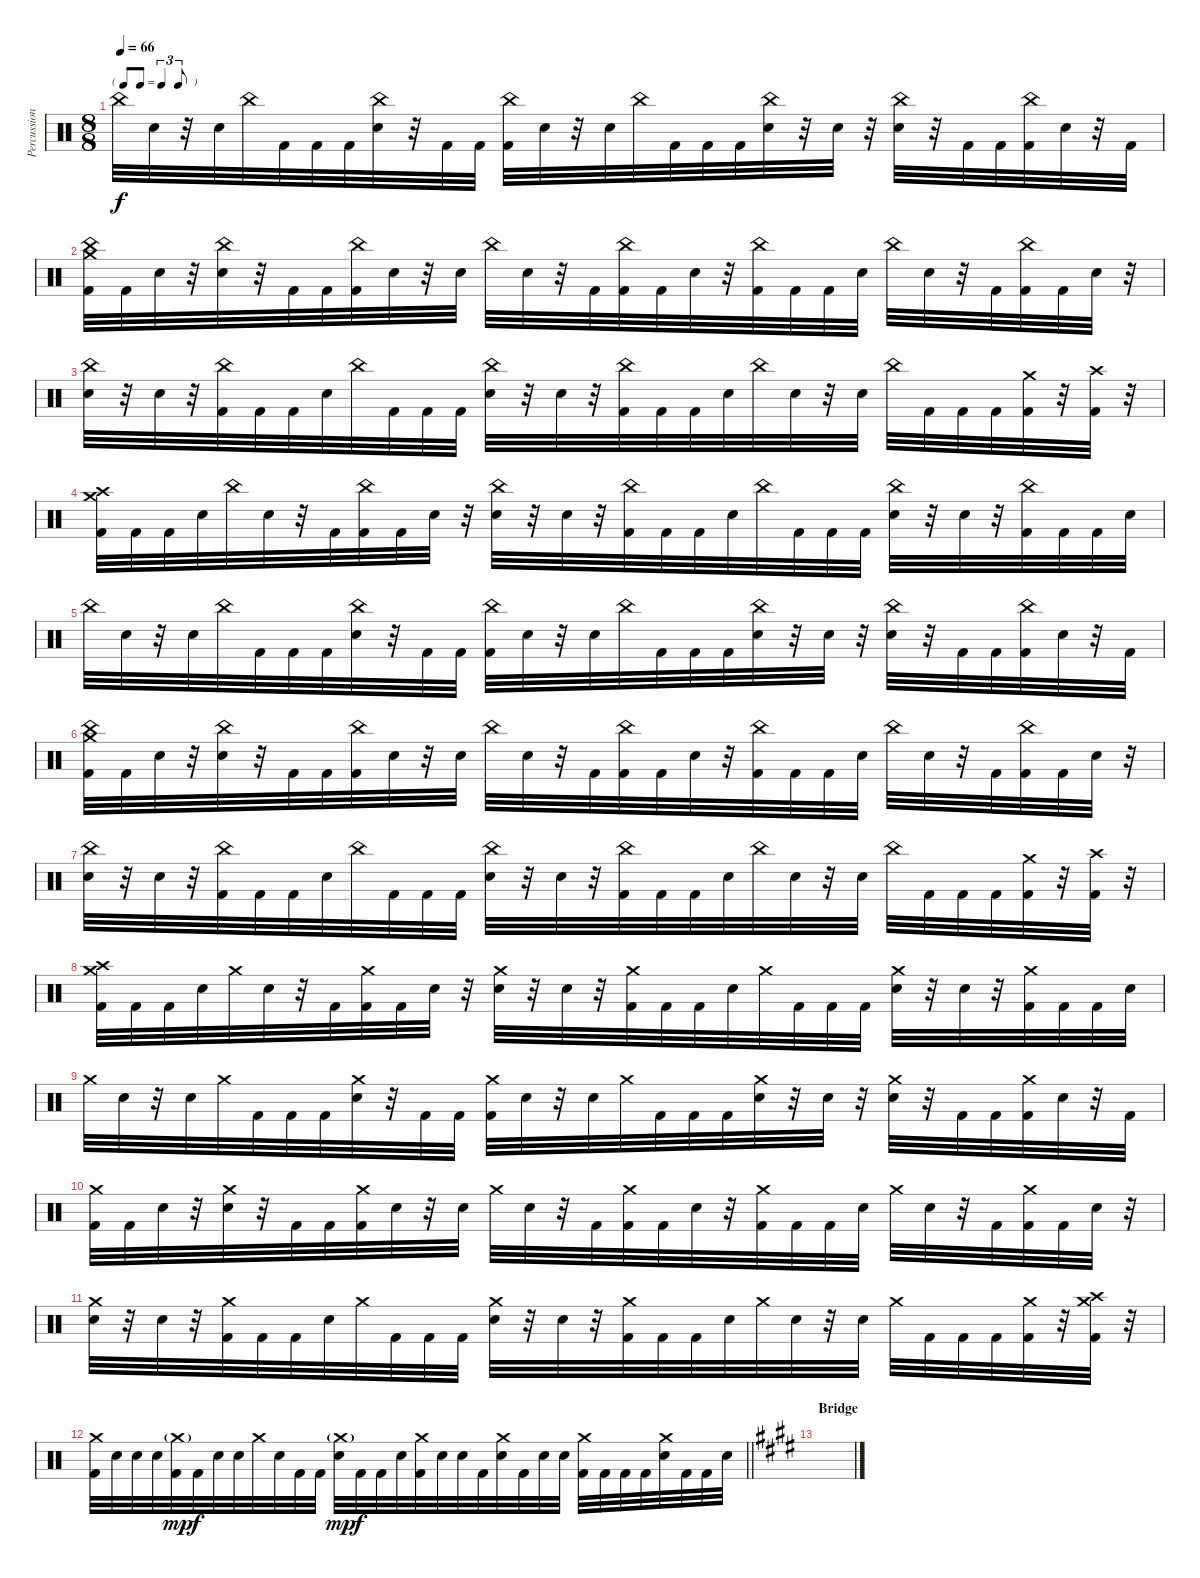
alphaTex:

\track ("Percussion" "Percussion") {instrument percussion}
\staff {score}
\articulation defaults
\ts (8 8)
\tf triplet8th
\tempo 66
\clef neutral
\ks aminor "China (hit)".32{dy f} "Electric Snare (hit)".32
r.32 "Electric Snare (hit)".32 "China (hit)".32 "Kick (hit) 2".32 "Kick (hit) 2".32 "Kick (hit) 2".32 ("China (hit)" "Electric Snare (hit)").32 r.32 "Kick (hit) 2".32 "Kick (hit) 2".32 ("China (hit)" "Kick (hit) 2").32 "Electric Snare (hit)".32 r.32 "Electric Snare (hit)".32 "China (hit)".32 "Kick (hit) 2".32 "Kick (hit) 2".32 "Kick (hit) 2".32 ("China (hit)" "Electric Snare (hit)").32 r.32 "Electric Snare (hit)".32 r.32 ("China (hit)" "Electric Snare (hit)").32 r.32 "Kick (hit) 2".32 "Kick (hit) 2".32 ("China (hit)" "Kick (hit) 2").32 "Electric Snare (hit)".32 r.32 "Kick (hit) 2".32 |
("China (hit)" "Crash medium (hit)" "Kick (hit) 2").32 "Kick (hit) 2".32 "Electric Snare (hit)".32 r.32 ("China (hit)" "Electric Snare (hit)").32 r.32 "Kick (hit) 2".32 "Kick (hit) 2".32 ("China (hit)" "Kick (hit) 2").32 "Electric Snare (hit)".32 r.32 "Electric Snare (hit)".32 "China (hit)".32 "Electric Snare (hit)".32 r.32 "Kick (hit) 2".32 ("China (hit)" "Kick (hit) 2").32 "Kick (hit) 2".32 "Electric Snare (hit)".32 r.32 ("China (hit)" "Kick (hit) 2").32 "Kick (hit) 2".32 "Kick (hit) 2".32 "Electric Snare (hit)".32 "China (hit)".32 "Electric Snare (hit)".32 r.32 "Kick (hit) 2".32 ("China (hit)" "Kick (hit) 2").32 "Kick (hit) 2".32 "Electric Snare (hit)".32 r.32 |
("China (hit)" "Electric Snare (hit)").32 r.32 "Electric Snare (hit)".32 r.32 ("China (hit)" "Kick (hit) 2").32 "Kick (hit) 2".32 "Kick (hit) 2".32 "Electric Snare (hit)".32 "China (hit)".32 "Kick (hit) 2".32 "Kick (hit) 2".32 "Kick (hit) 2".32 ("China (hit)" "Electric Snare (hit)").32 r.32 "Electric Snare (hit)".32 r.32 ("China (hit)" "Kick (hit) 2").32 "Kick (hit) 2".32 "Kick (hit) 2".32 "Electric Snare (hit)".32 "China (hit)".32 "Electric Snare (hit)".32 r.32 "Electric Snare (hit)".32 "China (hit)".32 "Kick (hit) 2".32 "Kick (hit) 2".32 "Kick (hit) 2".32 ("Crash medium (hit)" "Kick (hit) 2").32 r.32 ("Crash high (hit)" "Kick (hit) 2").32 r.32 |
("Crash medium (hit)" "Crash high (hit)" "Kick (hit) 2").32 "Kick (hit) 2".32 "Kick (hit) 2".32 "Electric Snare (hit)".32 "China (hit)".32 "Electric Snare (hit)".32 r.32 "Kick (hit) 2".32 ("China (hit)" "Kick (hit) 2").32 "Kick (hit) 2".32 "Electric Snare (hit)".32 r.32 ("China (hit)" "Electric Snare (hit)").32 r.32 "Electric Snare (hit)".32 r.32 ("China (hit)" "Kick (hit) 2").32 "Kick (hit) 2".32 "Kick (hit) 2".32 "Electric Snare (hit)".32 "China (hit)".32 "Kick (hit) 2".32 "Kick (hit) 2".32 "Kick (hit) 2".32 ("China (hit)" "Electric Snare (hit)").32 r.32 "Electric Snare (hit)".32 r.32 ("China (hit)" "Kick (hit) 2").32 "Kick (hit) 2".32 "Kick (hit) 2".32 "Electric Snare (hit)".32 |
"China (hit)".32 "Electric Snare (hit)".32 r.32 "Electric Snare (hit)".32 "China (hit)".32 "Kick (hit) 2".32 "Kick (hit) 2".32 "Kick (hit) 2".32 ("China (hit)" "Electric Snare (hit)").32 r.32 "Kick (hit) 2".32 "Kick (hit) 2".32 ("China (hit)" "Kick (hit) 2").32 "Electric Snare (hit)".32 r.32 "Electric Snare (hit)".32 "China (hit)".32 "Kick (hit) 2".32 "Kick (hit) 2".32 "Kick (hit) 2".32 ("China (hit)" "Electric Snare (hit)").32 r.32 "Electric Snare (hit)".32 r.32 ("China (hit)" "Electric Snare (hit)").32 r.32 "Kick (hit) 2".32 "Kick (hit) 2".32 ("China (hit)" "Kick (hit) 2").32 "Electric Snare (hit)".32 r.32 "Kick (hit) 2".32 |
("China (hit)" "Crash medium (hit)" "Kick (hit) 2").32 "Kick (hit) 2".32 "Electric Snare (hit)".32 r.32 ("China (hit)" "Electric Snare (hit)").32 r.32 "Kick (hit) 2".32 "Kick (hit) 2".32 ("China (hit)" "Kick (hit) 2").32 "Electric Snare (hit)".32 r.32 "Electric Snare (hit)".32 "China (hit)".32 "Electric Snare (hit)".32 r.32 "Kick (hit) 2".32 ("China (hit)" "Kick (hit) 2").32 "Kick (hit) 2".32 "Electric Snare (hit)".32 r.32 ("China (hit)" "Kick (hit) 2").32 "Kick (hit) 2".32 "Kick (hit) 2".32 "Electric Snare (hit)".32 "China (hit)".32 "Electric Snare (hit)".32 r.32 "Kick (hit) 2".32 ("China (hit)" "Kick (hit) 2").32 "Kick (hit) 2".32 "Electric Snare (hit)".32 r.32 |
("China (hit)" "Electric Snare (hit)").32 r.32 "Electric Snare (hit)".32 r.32 ("China (hit)" "Kick (hit) 2").32 "Kick (hit) 2".32 "Kick (hit) 2".32 "Electric Snare (hit)".32 "China (hit)".32 "Kick (hit) 2".32 "Kick (hit) 2".32 "Kick (hit) 2".32 ("China (hit)" "Electric Snare (hit)").32 r.32 "Electric Snare (hit)".32 r.32 ("China (hit)" "Kick (hit) 2").32 "Kick (hit) 2".32 "Kick (hit) 2".32 "Electric Snare (hit)".32 "China (hit)".32 "Electric Snare (hit)".32 r.32 "Electric Snare (hit)".32 "China (hit)".32 "Kick (hit) 2".32 "Kick (hit) 2".32 "Kick (hit) 2".32 ("Crash medium (hit)" "Kick (hit) 2").32 r.32 ("Crash high (hit)" "Kick (hit) 2").32 r.32 |
("Crash medium (hit)" "Crash high (hit)" "Kick (hit) 2").32 "Kick (hit) 2".32 "Kick (hit) 2".32 "Electric Snare (hit)".32 "Crash medium (hit)".32 "Electric Snare (hit)".32 r.32 "Kick (hit) 2".32 ("Crash medium (hit)" "Kick (hit) 2").32 "Kick (hit) 2".32 "Electric Snare (hit)".32 r.32 ("Crash medium (hit)" "Electric Snare (hit)").32 r.32 "Electric Snare (hit)".32 r.32 ("Crash medium (hit)" "Kick (hit) 2").32 "Kick (hit) 2".32 "Kick (hit) 2".32 "Electric Snare (hit)".32 "Crash medium (hit)".32 "Kick (hit) 2".32 "Kick (hit) 2".32 "Kick (hit) 2".32 ("Crash medium (hit)" "Electric Snare (hit)").32 r.32 "Electric Snare (hit)".32 r.32 ("Crash medium (hit)" "Kick (hit) 2").32 "Kick (hit) 2".32 "Kick (hit) 2".32 "Electric Snare (hit)".32 |
"Crash medium (hit)".32 "Electric Snare (hit)".32 r.32 "Electric Snare (hit)".32 "Crash medium (hit)".32 "Kick (hit) 2".32 "Kick (hit) 2".32 "Kick (hit) 2".32 ("Crash medium (hit)" "Electric Snare (hit)").32 r.32 "Kick (hit) 2".32 "Kick (hit) 2".32 ("Crash medium (hit)" "Kick (hit) 2").32 "Electric Snare (hit)".32 r.32 "Electric Snare (hit)".32 "Crash medium (hit)".32 "Kick (hit) 2".32 "Kick (hit) 2".32 "Kick (hit) 2".32 ("Crash medium (hit)" "Electric Snare (hit)").32 r.32 "Electric Snare (hit)".32 r.32 ("Crash medium (hit)" "Electric Snare (hit)").32 r.32 "Kick (hit) 2".32 "Kick (hit) 2".32 ("Crash medium (hit)" "Kick (hit) 2").32 "Electric Snare (hit)".32 r.32 "Kick (hit) 2".32 |
("Crash medium (hit)" "Kick (hit) 2").32 "Kick (hit) 2".32 "Electric Snare (hit)".32 r.32 ("Crash medium (hit)" "Electric Snare (hit)").32 r.32 "Kick (hit) 2".32 "Kick (hit) 2".32 ("Crash medium (hit)" "Kick (hit) 2").32 "Electric Snare (hit)".32 r.32 "Electric Snare (hit)".32 "Crash medium (hit)".32 "Electric Snare (hit)".32 r.32 "Kick (hit) 2".32 ("Crash medium (hit)" "Kick (hit) 2").32 "Kick (hit) 2".32 "Electric Snare (hit)".32 r.32 ("Crash medium (hit)" "Kick (hit) 2").32 "Kick (hit) 2".32 "Kick (hit) 2".32 "Electric Snare (hit)".32 "Crash medium (hit)".32 "Electric Snare (hit)".32 r.32 "Kick (hit) 2".32 ("Crash medium (hit)" "Kick (hit) 2").32 "Kick (hit) 2".32 "Electric Snare (hit)".32 r.32 |
("Crash medium (hit)" "Electric Snare (hit)").32 r.32 "Electric Snare (hit)".32 r.32 ("Crash medium (hit)" "Kick (hit) 2").32 "Kick (hit) 2".32 "Kick (hit) 2".32 "Electric Snare (hit)".32 "Crash medium (hit)".32 "Kick (hit) 2".32 "Kick (hit) 2".32 "Kick (hit) 2".32 ("Crash medium (hit)" "Electric Snare (hit)").32 r.32 "Electric Snare (hit)".32 r.32 ("Crash medium (hit)" "Kick (hit) 2").32 "Kick (hit) 2".32 "Kick (hit) 2".32 "Electric Snare (hit)".32 "Crash medium (hit)".32 "Electric Snare (hit)".32 r.32 "Electric Snare (hit)".32 "Crash medium (hit)".32 "Kick (hit) 2".32 "Kick (hit) 2".32 "Kick (hit) 2".32 ("Crash medium (hit)" "Kick (hit) 2").32 r.32 ("Crash high (hit)" "Crash medium (hit)" "Kick (hit) 2").32 r.32 |
\barLineRight lightlight
("Crash medium (hit)" "Kick (hit) 2").32 "Electric Snare (hit)".32 "Electric Snare (hit)".32 "Electric Snare (hit)".32 ("Crash medium (hit)"{g} "Kick (hit) 2").32{dy mp} "Kick (hit) 2".32{dy f} "Electric Snare (hit)".32 "Electric Snare (hit)".32 "Crash medium (hit)".32 "Electric Snare (hit)".32 "Kick (hit) 2".32 "Kick (hit) 2".32 ("Crash medium (hit)"{g} "Electric Snare (hit)").32{dy mp} "Kick (hit) 2".32{dy f} "Kick (hit) 2".32 "Electric Snare (hit)".32 ("Crash medium (hit)" "Kick (hit) 2").32 "Electric Snare (hit)".32 "Electric Snare (hit)".32 "Kick (hit) 2".32 ("Crash medium (hit)" "Electric Snare (hit)").32 "Kick (hit) 2".32 "Electric Snare (hit)".32 "Electric Snare (hit)".32 ("Crash medium (hit)" "Kick (hit) 2").32 "Kick (hit) 2".32 "Kick (hit) 2".32 "Kick (hit) 2".32 ("Crash medium (hit)" "Electric Snare (hit)").32 "Kick (hit) 2".32 "Kick (hit) 2".32 "Electric Snare (hit)".32 |
\section ("" "Bridge")
\ks c#minor
